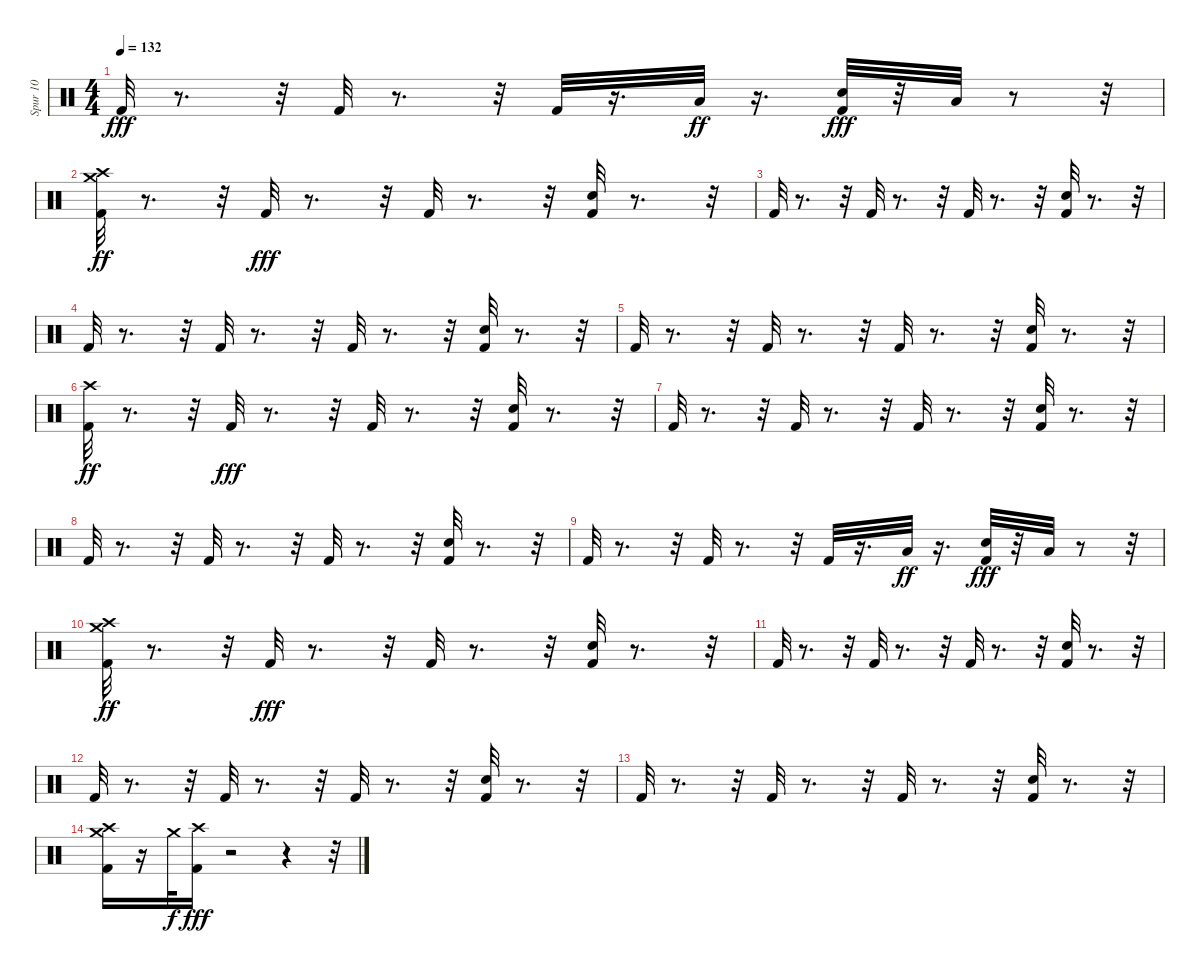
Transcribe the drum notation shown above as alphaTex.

\track ("Spur 10" "Spur 10") {instrument percussion}
\staff {score}
\articulation defaults
\ts (4 4)
\tempo 132
\clef neutral
\ks c "Kick (hit) 2".32{dy fff}
r.8{d} r.32 "Kick (hit) 2".32 r.8{d} r.32 "Kick (hit) 2".32 r.16{d} "Low Tom (hit)".32{dy ff} r.16{d} ("Electric Snare (hit)" "Kick (hit) 2").32{dy fff} r.32 "Low Floor Tom (hit)".32 r.8 r.32 |
("Crash medium (hit)" "Kick (hit) 2" "Crash high (hit)").32{dy ff} r.8{d} r.32 "Kick (hit) 2".32{dy fff} r.8{d} r.32 "Kick (hit) 2".32 r.8{d} r.32 ("Electric Snare (hit)" "Kick (hit) 2").32 r.8{d} r.32 |
"Kick (hit) 2".32 r.8{d} r.32 "Kick (hit) 2".32 r.8{d} r.32 "Kick (hit) 2".32 r.8{d} r.32 ("Electric Snare (hit)" "Kick (hit) 2").32 r.8{d} r.32 |
"Kick (hit) 2".32 r.8{d} r.32 "Kick (hit) 2".32 r.8{d} r.32 "Kick (hit) 2".32 r.8{d} r.32 ("Electric Snare (hit)" "Kick (hit) 2").32 r.8{d} r.32 |
"Kick (hit) 2".32 r.8{d} r.32 "Kick (hit) 2".32 r.8{d} r.32 "Kick (hit) 2".32 r.8{d} r.32 ("Electric Snare (hit)" "Kick (hit) 2").32 r.8{d} r.32 |
("Kick (hit) 2" "Crash high (hit)").32{dy ff} r.8{d} r.32 "Kick (hit) 2".32{dy fff} r.8{d} r.32 "Kick (hit) 2".32 r.8{d} r.32 ("Electric Snare (hit)" "Kick (hit) 2").32 r.8{d} r.32 |
"Kick (hit) 2".32 r.8{d} r.32 "Kick (hit) 2".32 r.8{d} r.32 "Kick (hit) 2".32 r.8{d} r.32 ("Electric Snare (hit)" "Kick (hit) 2").32 r.8{d} r.32 |
"Kick (hit) 2".32 r.8{d} r.32 "Kick (hit) 2".32 r.8{d} r.32 "Kick (hit) 2".32 r.8{d} r.32 ("Electric Snare (hit)" "Kick (hit) 2").32 r.8{d} r.32 |
"Kick (hit) 2".32 r.8{d} r.32 "Kick (hit) 2".32 r.8{d} r.32 "Kick (hit) 2".32 r.16{d} "Low Tom (hit)".32{dy ff} r.16{d} ("Electric Snare (hit)" "Kick (hit) 2").32{dy fff} r.32 "Low Floor Tom (hit)".32 r.8 r.32 |
("Crash medium (hit)" "Kick (hit) 2" "Crash high (hit)").32{dy ff} r.8{d} r.32 "Kick (hit) 2".32{dy fff} r.8{d} r.32 "Kick (hit) 2".32 r.8{d} r.32 ("Electric Snare (hit)" "Kick (hit) 2").32 r.8{d} r.32 |
"Kick (hit) 2".32 r.8{d} r.32 "Kick (hit) 2".32 r.8{d} r.32 "Kick (hit) 2".32 r.8{d} r.32 ("Electric Snare (hit)" "Kick (hit) 2").32 r.8{d} r.32 |
"Kick (hit) 2".32 r.8{d} r.32 "Kick (hit) 2".32 r.8{d} r.32 "Kick (hit) 2".32 r.8{d} r.32 ("Electric Snare (hit)" "Kick (hit) 2").32 r.8{d} r.32 |
"Kick (hit) 2".32 r.8{d} r.32 "Kick (hit) 2".32 r.8{d} r.32 "Kick (hit) 2".32 r.8{d} r.32 ("Electric Snare (hit)" "Kick (hit) 2").32 r.8{d} r.32 |
("Crash high (hit)" "Crash medium (hit)" "Kick (hit) 2").16 r.16 "Crash medium (hit)".32{dy f} ("Crash high (hit)" "Kick (hit) 2").16{dy fff} r.2 r.4 r.32
